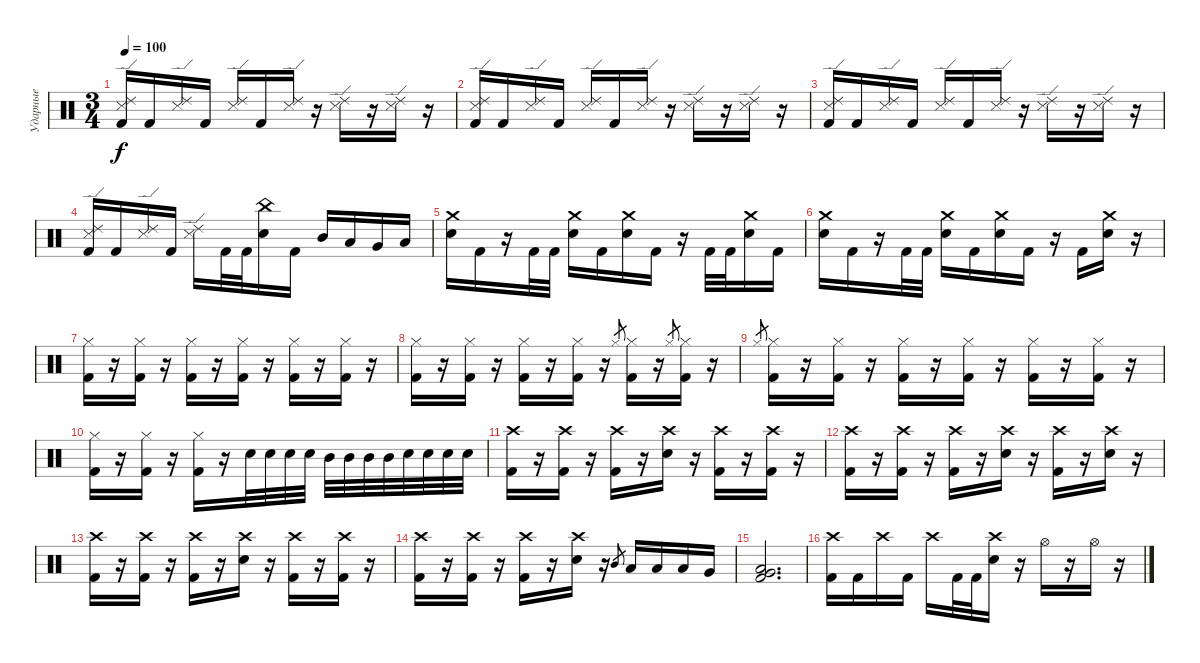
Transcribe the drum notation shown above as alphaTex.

\track ("Ударные" "Ударные") {instrument percussion}
\staff {score}
\articulation defaults
\ts (3 4)
\tempo 100
\clef neutral
\ks c
("Ride (edge) 2" "Metronome (hit)" "Kick (hit) 2").16{dy f} "Kick (hit) 2".16 ("Ride (edge) 2" "Metronome (hit)").16 "Kick (hit) 2".16 ("Ride (edge) 2" "Metronome (hit)").16 "Kick (hit) 2".16 ("Ride (edge) 2" "Metronome (hit)").16 r.16 ("Ride (edge) 2" "Metronome (hit)").16 r.16 ("Ride (edge) 2" "Metronome (hit)").16 r.16 |
("Ride (edge) 2" "Metronome (hit)" "Kick (hit) 2").16 "Kick (hit) 2".16 ("Ride (edge) 2" "Metronome (hit)").16 "Kick (hit) 2".16 ("Ride (edge) 2" "Metronome (hit)").16 "Kick (hit) 2".16 ("Ride (edge) 2" "Metronome (hit)").16 r.16 ("Ride (edge) 2" "Metronome (hit)").16 r.16 ("Ride (edge) 2" "Metronome (hit)").16 r.16 |
("Ride (edge) 2" "Metronome (hit)" "Kick (hit) 2").16 "Kick (hit) 2".16 ("Ride (edge) 2" "Metronome (hit)").16 "Kick (hit) 2".16 ("Ride (edge) 2" "Metronome (hit)").16 "Kick (hit) 2".16 ("Ride (edge) 2" "Metronome (hit)").16 r.16 ("Ride (edge) 2" "Metronome (hit)").16 r.16 ("Ride (edge) 2" "Metronome (hit)").16 r.16 |
("Ride (edge) 2" "Metronome (hit)" "Kick (hit) 2").16 "Kick (hit) 2".16 ("Ride (edge) 2" "Metronome (hit)").16 "Kick (hit) 2".16 ("Ride (edge) 2" "Metronome (hit)").16 "Kick (hit) 2".32 "Kick (hit) 2".32 ("China (hit)" "Electric Snare (hit)").16 "Kick (hit) 2".16 "Mid Tom (hit)".16 "Low Tom (hit)".16 "Very Low Tom (hit)".16 "Low Floor Tom (hit)".16 |
("Crash medium (hit)" "Electric Snare (hit)").16 "Kick (hit) 2".16 r.16 "Kick (hit) 2".32 "Kick (hit) 2".32 ("Crash medium (hit)" "Electric Snare (hit)").16 "Kick (hit) 2".16 ("Crash medium (hit)" "Electric Snare (hit)").16 "Kick (hit) 2".16 r.16 "Kick (hit) 2".32 "Kick (hit) 2".32 ("Crash medium (hit)" "Electric Snare (hit)").16 "Kick (hit) 2".16 |
("Crash medium (hit)" "Electric Snare (hit)").16 "Kick (hit) 2".16 r.16 "Kick (hit) 2".32 "Kick (hit) 2".32 ("Crash medium (hit)" "Electric Snare (hit)").16 "Kick (hit) 2".16 ("Crash medium (hit)" "Electric Snare (hit)").16 "Kick (hit) 2".16 r.16 "Kick (hit) 2".16 ("Crash medium (hit)" "Electric Snare (hit)").16 r.16 |
("Hi-Hat (closed)" "Kick (hit) 2").16 r.16 ("Hi-Hat (closed)" "Kick (hit) 2").16 r.16 ("Hi-Hat (closed)" "Kick (hit) 2").16 r.16 ("Hi-Hat (closed)" "Kick (hit) 2").16 r.16 ("Hi-Hat (closed)" "Kick (hit) 2").16 r.16 ("Hi-Hat (closed)" "Kick (hit) 2").16 r.16 |
("Hi-Hat (closed)" "Kick (hit) 2").16 r.16 ("Hi-Hat (closed)" "Kick (hit) 2").16 r.16 ("Hi-Hat (closed)" "Kick (hit) 2").16 r.16 ("Hi-Hat (closed)" "Kick (hit) 2").16 r.16 "Hi-Hat (closed)".8{gr} ("Hi-Hat (closed)" "Kick (hit) 2").16 r.16 "Hi-Hat (closed)".8{gr} ("Hi-Hat (closed)" "Kick (hit) 2").16 r.16 |
"Hi-Hat (closed)".8{gr} ("Hi-Hat (closed)" "Kick (hit) 2").16 r.16 ("Hi-Hat (closed)" "Kick (hit) 2").16 r.16 ("Hi-Hat (closed)" "Kick (hit) 2").16 r.16 ("Hi-Hat (closed)" "Kick (hit) 2").16 r.16 ("Hi-Hat (closed)" "Kick (hit) 2").16 r.16 ("Hi-Hat (closed)" "Kick (hit) 2").16 r.16 |
("Hi-Hat (closed)" "Kick (hit) 2").16 r.16 ("Hi-Hat (closed)" "Kick (hit) 2").16 r.16 ("Hi-Hat (closed)" "Kick (hit) 2").16 r.16 "Electric Snare (hit)".32 "Electric Snare (hit)".32 "Electric Snare (hit)".32 "Electric Snare (hit)".32 "Mid Tom (hit)".32 "Mid Tom (hit)".32 "Mid Tom (hit)".32 "Mid Tom (hit)".32 "Electric Snare (hit)".32 "Electric Snare (hit)".32 "Electric Snare (hit)".32 "Electric Snare (hit)".32 |
("Crash high (hit)" "Kick (hit) 2").16 r.16 ("Crash high (hit)" "Kick (hit) 2").16 r.16 ("Crash high (hit)" "Kick (hit) 2").16 r.16 ("Crash high (hit)" "Electric Snare (hit)").16 r.16 ("Crash high (hit)" "Kick (hit) 2").16 r.16 ("Crash high (hit)" "Kick (hit) 2").16 r.16 |
("Crash high (hit)" "Kick (hit) 2").16 r.16 ("Crash high (hit)" "Kick (hit) 2").16 r.16 ("Crash high (hit)" "Kick (hit) 2").16 r.16 ("Crash high (hit)" "Electric Snare (hit)").16 r.16 ("Crash high (hit)" "Kick (hit) 2").16 r.16 ("Crash high (hit)" "Electric Snare (hit)").16 r.16 |
("Crash high (hit)" "Kick (hit) 2").16 r.16 ("Crash high (hit)" "Kick (hit) 2").16 r.16 ("Crash high (hit)" "Kick (hit) 2").16 r.16 ("Crash high (hit)" "Electric Snare (hit)").16 r.16 ("Crash high (hit)" "Kick (hit) 2").16 r.16 ("Crash high (hit)" "Kick (hit) 2").16 r.16 |
("Crash high (hit)" "Kick (hit) 2").16 r.16 ("Crash high (hit)" "Kick (hit) 2").16 r.16 ("Crash high (hit)" "Kick (hit) 2").16 r.16 ("Crash high (hit)" "Electric Snare (hit)").16 r.16 "Mid Tom (hit)".8{gr} "Low Tom (hit)".16 "Low Tom (hit)".16 "Low Tom (hit)".16 "Very Low Tom (hit)".16 |
("Low Tom (hit)" "Very Low Tom (hit)" "Kick (hit) 2").2{d} |
("Crash high (hit)" "Kick (hit) 2").16 "Kick (hit) 2".16 "Crash high (hit)".16 "Kick (hit) 2".16 "Crash high (hit)".16 "Kick (hit) 2".32 "Kick (hit) 2".32 ("Crash high (hit)" "Electric Snare (hit)").16 r.16 "Hi-Hat (open)".16 r.16 "Hi-Hat (open)".16 r.16
